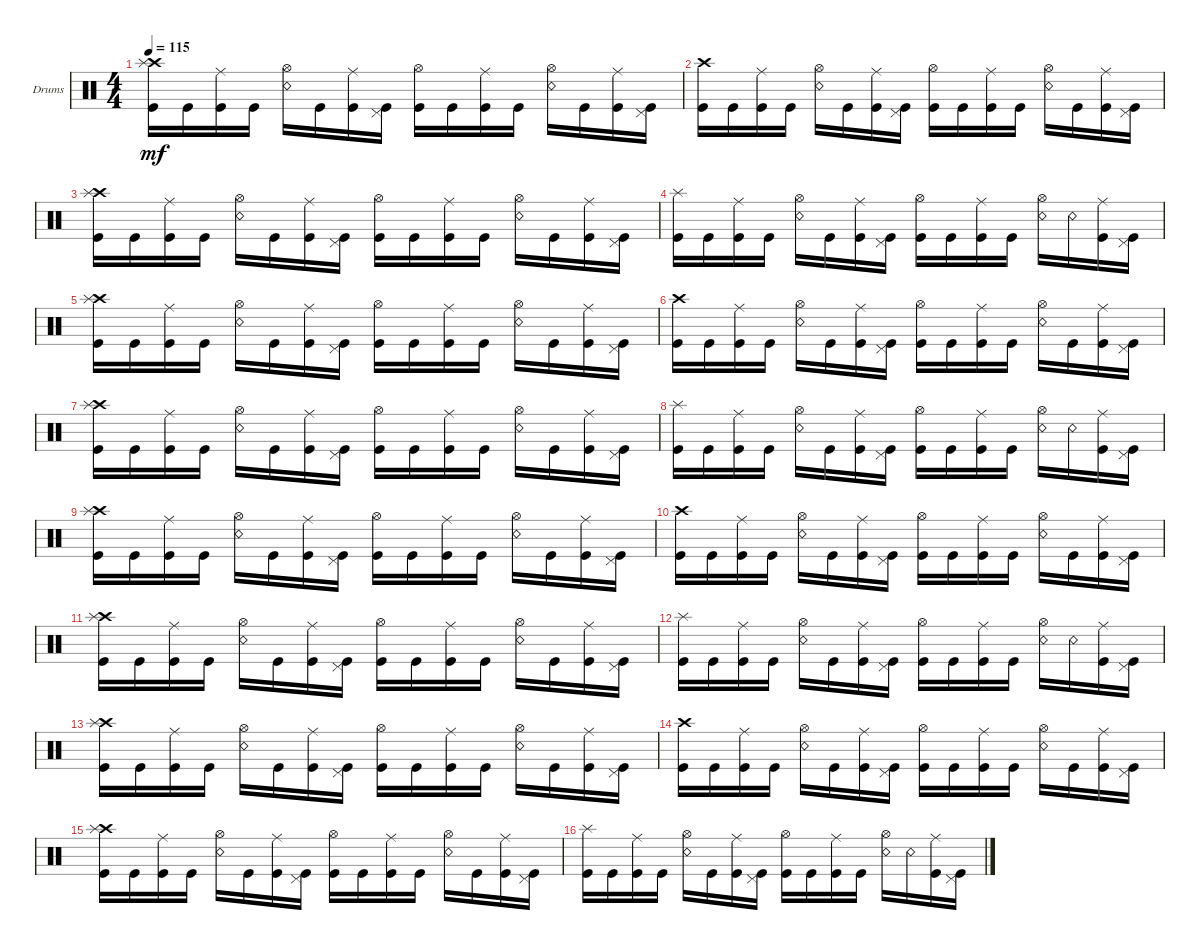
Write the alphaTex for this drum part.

\defaultSystemsLayout 4
\bracketExtendMode groupsimilarinstruments
\firstSystemTrackNameOrientation horizontal
\otherSystemsTrackNameOrientation horizontal
\track ("Drum" "Drums") {multiBarRest instrument percussion}
\staff {score}
\articulation defaults
\ts (4 4)
\tempo 115
\clef neutral
\ks c
("Kick (hit)" "Crash high (hit)" "Splash (hit)").16{dy mf} "Kick (hit)".16 ("Kick (hit)" "Ride (middle)").16 "Kick (hit)".16 ("Snare (rim shot)" "Hi-Hat (open)").16 "Kick (hit)".16 ("Kick (hit)" "Ride (middle)").16 ("Kick (hit)" "Pedal Hi-Hat (hit)").16 ("Kick (hit)" "Hi-Hat (open)").16 "Kick (hit)".16 ("Kick (hit)" "Ride (middle)").16 "Kick (hit)".16 ("Snare (rim shot)" "Hi-Hat (open)").16 "Kick (hit)".16 ("Kick (hit)" "Ride (middle)").16 ("Kick (hit)" "Pedal Hi-Hat (hit)").16 |
("Kick (hit)" "Crash high (hit)").16 "Kick (hit)".16 ("Kick (hit)" "Ride (middle)").16 "Kick (hit)".16 ("Snare (rim shot)" "Hi-Hat (open)").16 "Kick (hit)".16 ("Kick (hit)" "Ride (middle)").16 ("Kick (hit)" "Pedal Hi-Hat (hit)").16 ("Kick (hit)" "Hi-Hat (open)").16 "Kick (hit)".16 ("Kick (hit)" "Ride (middle)").16 "Kick (hit)".16 ("Snare (rim shot)" "Hi-Hat (open)").16 "Kick (hit)".16 ("Kick (hit)" "Ride (middle)").16 ("Kick (hit)" "Pedal Hi-Hat (hit)").16 |
("Kick (hit)" "Crash high (hit)" "Splash (hit)").16 "Kick (hit)".16 ("Kick (hit)" "Ride (middle)").16 "Kick (hit)".16 ("Snare (rim shot)" "Hi-Hat (open)").16 "Kick (hit)".16 ("Kick (hit)" "Ride (middle)").16 ("Kick (hit)" "Pedal Hi-Hat (hit)").16 ("Kick (hit)" "Hi-Hat (open)").16 "Kick (hit)".16 ("Kick (hit)" "Ride (middle)").16 "Kick (hit)".16 ("Snare (rim shot)" "Hi-Hat (open)").16 "Kick (hit)".16 ("Kick (hit)" "Ride (middle)").16 ("Kick (hit)" "Pedal Hi-Hat (hit)").16 |
("Kick (hit)" "Splash (hit)").16 "Kick (hit)".16 ("Kick (hit)" "Ride (middle)").16 "Kick (hit)".16 ("Snare (rim shot)" "Hi-Hat (open)").16 "Kick (hit)".16 ("Kick (hit)" "Ride (middle)").16 ("Kick (hit)" "Pedal Hi-Hat (hit)").16 ("Kick (hit)" "Hi-Hat (open)").16 "Kick (hit)".16 ("Kick (hit)" "Ride (middle)").16 "Kick (hit)".16 ("Snare (rim shot)" "Hi-Hat (open)").16 "Snare (rim shot)".16 ("Kick (hit)" "Ride (middle)").16 ("Kick (hit)" "Pedal Hi-Hat (hit)").16 |
("Kick (hit)" "Crash high (hit)" "Splash (hit)").16 "Kick (hit)".16 ("Kick (hit)" "Ride (middle)").16 "Kick (hit)".16 ("Snare (rim shot)" "Hi-Hat (open)").16 "Kick (hit)".16 ("Kick (hit)" "Ride (middle)").16 ("Kick (hit)" "Pedal Hi-Hat (hit)").16 ("Kick (hit)" "Hi-Hat (open)").16 "Kick (hit)".16 ("Kick (hit)" "Ride (middle)").16 "Kick (hit)".16 ("Snare (rim shot)" "Hi-Hat (open)").16 "Kick (hit)".16 ("Kick (hit)" "Ride (middle)").16 ("Kick (hit)" "Pedal Hi-Hat (hit)").16 |
("Kick (hit)" "Crash high (hit)").16 "Kick (hit)".16 ("Kick (hit)" "Ride (middle)").16 "Kick (hit)".16 ("Snare (rim shot)" "Hi-Hat (open)").16 "Kick (hit)".16 ("Kick (hit)" "Ride (middle)").16 ("Kick (hit)" "Pedal Hi-Hat (hit)").16 ("Kick (hit)" "Hi-Hat (open)").16 "Kick (hit)".16 ("Kick (hit)" "Ride (middle)").16 "Kick (hit)".16 ("Snare (rim shot)" "Hi-Hat (open)").16 "Kick (hit)".16 ("Kick (hit)" "Ride (middle)").16 ("Kick (hit)" "Pedal Hi-Hat (hit)").16 |
("Kick (hit)" "Crash high (hit)" "Splash (hit)").16 "Kick (hit)".16 ("Kick (hit)" "Ride (middle)").16 "Kick (hit)".16 ("Snare (rim shot)" "Hi-Hat (open)").16 "Kick (hit)".16 ("Kick (hit)" "Ride (middle)").16 ("Kick (hit)" "Pedal Hi-Hat (hit)").16 ("Kick (hit)" "Hi-Hat (open)").16 "Kick (hit)".16 ("Kick (hit)" "Ride (middle)").16 "Kick (hit)".16 ("Snare (rim shot)" "Hi-Hat (open)").16 "Kick (hit)".16 ("Kick (hit)" "Ride (middle)").16 ("Kick (hit)" "Pedal Hi-Hat (hit)").16 |
("Kick (hit)" "Splash (hit)").16 "Kick (hit)".16 ("Kick (hit)" "Ride (middle)").16 "Kick (hit)".16 ("Snare (rim shot)" "Hi-Hat (open)").16 "Kick (hit)".16 ("Kick (hit)" "Ride (middle)").16 ("Kick (hit)" "Pedal Hi-Hat (hit)").16 ("Kick (hit)" "Hi-Hat (open)").16 "Kick (hit)".16 ("Kick (hit)" "Ride (middle)").16 "Kick (hit)".16 ("Snare (rim shot)" "Hi-Hat (open)").16 "Snare (rim shot)".16 ("Kick (hit)" "Ride (middle)").16 ("Kick (hit)" "Pedal Hi-Hat (hit)").16 |
("Kick (hit)" "Crash high (hit)" "Splash (hit)").16 "Kick (hit)".16 ("Kick (hit)" "Ride (middle)").16 "Kick (hit)".16 ("Snare (rim shot)" "Hi-Hat (open)").16 "Kick (hit)".16 ("Kick (hit)" "Ride (middle)").16 ("Kick (hit)" "Pedal Hi-Hat (hit)").16 ("Kick (hit)" "Hi-Hat (open)").16 "Kick (hit)".16 ("Kick (hit)" "Ride (middle)").16 "Kick (hit)".16 ("Snare (rim shot)" "Hi-Hat (open)").16 "Kick (hit)".16 ("Kick (hit)" "Ride (middle)").16 ("Kick (hit)" "Pedal Hi-Hat (hit)").16 |
("Kick (hit)" "Crash high (hit)").16 "Kick (hit)".16 ("Kick (hit)" "Ride (middle)").16 "Kick (hit)".16 ("Snare (rim shot)" "Hi-Hat (open)").16 "Kick (hit)".16 ("Kick (hit)" "Ride (middle)").16 ("Kick (hit)" "Pedal Hi-Hat (hit)").16 ("Kick (hit)" "Hi-Hat (open)").16 "Kick (hit)".16 ("Kick (hit)" "Ride (middle)").16 "Kick (hit)".16 ("Snare (rim shot)" "Hi-Hat (open)").16 "Kick (hit)".16 ("Kick (hit)" "Ride (middle)").16 ("Kick (hit)" "Pedal Hi-Hat (hit)").16 |
("Kick (hit)" "Crash high (hit)" "Splash (hit)").16 "Kick (hit)".16 ("Kick (hit)" "Ride (middle)").16 "Kick (hit)".16 ("Snare (rim shot)" "Hi-Hat (open)").16 "Kick (hit)".16 ("Kick (hit)" "Ride (middle)").16 ("Kick (hit)" "Pedal Hi-Hat (hit)").16 ("Kick (hit)" "Hi-Hat (open)").16 "Kick (hit)".16 ("Kick (hit)" "Ride (middle)").16 "Kick (hit)".16 ("Snare (rim shot)" "Hi-Hat (open)").16 "Kick (hit)".16 ("Kick (hit)" "Ride (middle)").16 ("Kick (hit)" "Pedal Hi-Hat (hit)").16 |
("Kick (hit)" "Splash (hit)").16 "Kick (hit)".16 ("Kick (hit)" "Ride (middle)").16 "Kick (hit)".16 ("Snare (rim shot)" "Hi-Hat (open)").16 "Kick (hit)".16 ("Kick (hit)" "Ride (middle)").16 ("Kick (hit)" "Pedal Hi-Hat (hit)").16 ("Kick (hit)" "Hi-Hat (open)").16 "Kick (hit)".16 ("Kick (hit)" "Ride (middle)").16 "Kick (hit)".16 ("Snare (rim shot)" "Hi-Hat (open)").16 "Snare (rim shot)".16 ("Kick (hit)" "Ride (middle)").16 ("Kick (hit)" "Pedal Hi-Hat (hit)").16 |
("Kick (hit)" "Crash high (hit)" "Splash (hit)").16 "Kick (hit)".16 ("Kick (hit)" "Ride (middle)").16 "Kick (hit)".16 ("Snare (rim shot)" "Hi-Hat (open)").16 "Kick (hit)".16 ("Kick (hit)" "Ride (middle)").16 ("Kick (hit)" "Pedal Hi-Hat (hit)").16 ("Kick (hit)" "Hi-Hat (open)").16 "Kick (hit)".16 ("Kick (hit)" "Ride (middle)").16 "Kick (hit)".16 ("Snare (rim shot)" "Hi-Hat (open)").16 "Kick (hit)".16 ("Kick (hit)" "Ride (middle)").16 ("Kick (hit)" "Pedal Hi-Hat (hit)").16 |
("Kick (hit)" "Crash high (hit)").16 "Kick (hit)".16 ("Kick (hit)" "Ride (middle)").16 "Kick (hit)".16 ("Snare (rim shot)" "Hi-Hat (open)").16 "Kick (hit)".16 ("Kick (hit)" "Ride (middle)").16 ("Kick (hit)" "Pedal Hi-Hat (hit)").16 ("Kick (hit)" "Hi-Hat (open)").16 "Kick (hit)".16 ("Kick (hit)" "Ride (middle)").16 "Kick (hit)".16 ("Snare (rim shot)" "Hi-Hat (open)").16 "Kick (hit)".16 ("Kick (hit)" "Ride (middle)").16 ("Kick (hit)" "Pedal Hi-Hat (hit)").16 |
("Kick (hit)" "Crash high (hit)" "Splash (hit)").16 "Kick (hit)".16 ("Kick (hit)" "Ride (middle)").16 "Kick (hit)".16 ("Snare (rim shot)" "Hi-Hat (open)").16 "Kick (hit)".16 ("Kick (hit)" "Ride (middle)").16 ("Kick (hit)" "Pedal Hi-Hat (hit)").16 ("Kick (hit)" "Hi-Hat (open)").16 "Kick (hit)".16 ("Kick (hit)" "Ride (middle)").16 "Kick (hit)".16 ("Snare (rim shot)" "Hi-Hat (open)").16 "Kick (hit)".16 ("Kick (hit)" "Ride (middle)").16 ("Kick (hit)" "Pedal Hi-Hat (hit)").16 |
("Kick (hit)" "Splash (hit)").16 "Kick (hit)".16 ("Kick (hit)" "Ride (middle)").16 "Kick (hit)".16 ("Snare (rim shot)" "Hi-Hat (open)").16 "Kick (hit)".16 ("Kick (hit)" "Ride (middle)").16 ("Kick (hit)" "Pedal Hi-Hat (hit)").16 ("Kick (hit)" "Hi-Hat (open)").16 "Kick (hit)".16 ("Kick (hit)" "Ride (middle)").16 "Kick (hit)".16 ("Snare (rim shot)" "Hi-Hat (open)").16 "Snare (rim shot)".16 ("Kick (hit)" "Ride (middle)").16 ("Kick (hit)" "Pedal Hi-Hat (hit)").16
